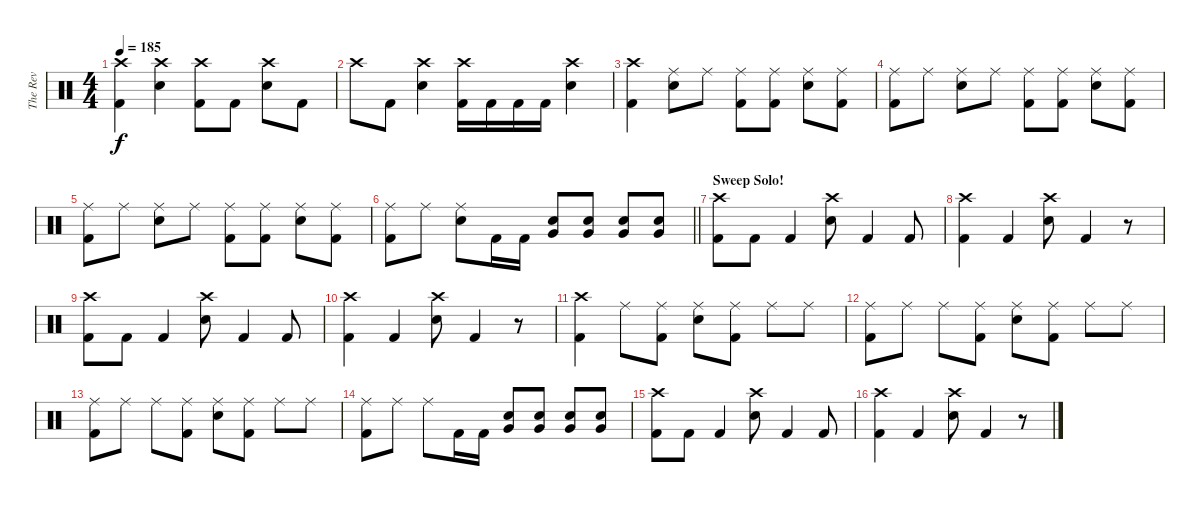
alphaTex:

\track ("The Rev" "The Rev") {instrument percussion}
\staff {score}
\articulation defaults
\ts (4 4)
\tempo 185
\clef neutral
\ks c
("Crash high (hit)" "Kick (hit) 2").4{dy f} ("Crash high (hit)" "Electric Snare (hit)").4 ("Crash high (hit)" "Kick (hit) 2").8 "Kick (hit) 2".8 ("Crash high (hit)" "Electric Snare (hit)").8 "Kick (hit) 2".8 |
"Crash high (hit)".8 "Kick (hit) 2".8 ("Crash high (hit)" "Electric Snare (hit)").4 ("Crash high (hit)" "Kick (hit) 2").16 "Kick (hit) 2".16 "Kick (hit) 2".16 "Kick (hit) 2".16 ("Crash high (hit)" "Electric Snare (hit)").4 |
("Crash high (hit)" "Kick (hit) 2").4 ("Ride (middle)" "Electric Snare (hit)").8 "Ride (middle)".8 ("Ride (middle)" "Kick (hit) 2").8 ("Ride (middle)" "Kick (hit) 2").8 ("Ride (middle)" "Electric Snare (hit)").8 ("Ride (middle)" "Kick (hit) 2").8 |
("Ride (middle)" "Kick (hit) 2").8 "Ride (middle)".8 ("Ride (middle)" "Electric Snare (hit)").8 "Ride (middle)".8 ("Ride (middle)" "Kick (hit) 2").8 ("Ride (middle)" "Kick (hit) 2").8 ("Ride (middle)" "Electric Snare (hit)").8 ("Ride (middle)" "Kick (hit) 2").8 |
("Ride (middle)" "Kick (hit) 2").8 "Ride (middle)".8 ("Ride (middle)" "Electric Snare (hit)").8 "Ride (middle)".8 ("Ride (middle)" "Kick (hit) 2").8 ("Ride (middle)" "Kick (hit) 2").8 ("Ride (middle)" "Electric Snare (hit)").8 ("Ride (middle)" "Kick (hit) 2").8 |
\barLineRight lightlight
("Ride (middle)" "Kick (hit) 2").8 "Ride (middle)".8 ("Ride (middle)" "Electric Snare (hit)").8 "Kick (hit) 2".16 "Kick (hit) 2".16 ("Very Low Tom (hit)" "Electric Snare (hit)").8 ("Very Low Tom (hit)" "Electric Snare (hit)").8 ("Very Low Tom (hit)" "Electric Snare (hit)").8 ("Very Low Tom (hit)" "Electric Snare (hit)").8 |
\section ("" "Sweep Solo!")
("Crash high (hit)" "Kick (hit) 2").8 "Kick (hit) 2".8 "Kick (hit) 2".4 ("Crash high (hit)" "Electric Snare (hit)").8 "Kick (hit) 2".4 "Kick (hit) 2".8 |
("Crash high (hit)" "Kick (hit) 2").4 "Kick (hit) 2".4 ("Crash high (hit)" "Electric Snare (hit)").8 "Kick (hit) 2".4 r.8 |
("Crash high (hit)" "Kick (hit) 2").8 "Kick (hit) 2".8 "Kick (hit) 2".4 ("Crash high (hit)" "Electric Snare (hit)").8 "Kick (hit) 2".4 "Kick (hit) 2".8 |
("Crash high (hit)" "Kick (hit) 2").4 "Kick (hit) 2".4 ("Crash high (hit)" "Electric Snare (hit)").8 "Kick (hit) 2".4 r.8 |
("Crash high (hit)" "Kick (hit) 2").4 "Ride (middle)".8 ("Ride (middle)" "Kick (hit) 2").8 ("Ride (middle)" "Electric Snare (hit)").8 ("Ride (middle)" "Kick (hit) 2").8 "Ride (middle)".8 "Ride (middle)".8 |
("Ride (middle)" "Kick (hit) 2").8 "Ride (middle)".8 "Ride (middle)".8 ("Ride (middle)" "Kick (hit) 2").8 ("Ride (middle)" "Electric Snare (hit)").8 ("Ride (middle)" "Kick (hit) 2").8 "Ride (middle)".8 "Ride (middle)".8 |
("Ride (middle)" "Kick (hit) 2").8 "Ride (middle)".8 "Ride (middle)".8 ("Ride (middle)" "Kick (hit) 2").8 ("Ride (middle)" "Electric Snare (hit)").8 ("Ride (middle)" "Kick (hit) 2").8 "Ride (middle)".8 "Ride (middle)".8 |
("Ride (middle)" "Kick (hit) 2").8 "Ride (middle)".8 "Ride (middle)".8 "Kick (hit) 2".16 "Kick (hit) 2".16 ("Very Low Tom (hit)" "Electric Snare (hit)").8 ("Very Low Tom (hit)" "Electric Snare (hit)").8 ("Very Low Tom (hit)" "Electric Snare (hit)").8 ("Very Low Tom (hit)" "Electric Snare (hit)").8 |
("Crash high (hit)" "Kick (hit) 2").8 "Kick (hit) 2".8 "Kick (hit) 2".4 ("Crash high (hit)" "Electric Snare (hit)").8 "Kick (hit) 2".4 "Kick (hit) 2".8 |
("Crash high (hit)" "Kick (hit) 2").4 "Kick (hit) 2".4 ("Crash high (hit)" "Electric Snare (hit)").8 "Kick (hit) 2".4 r.8
